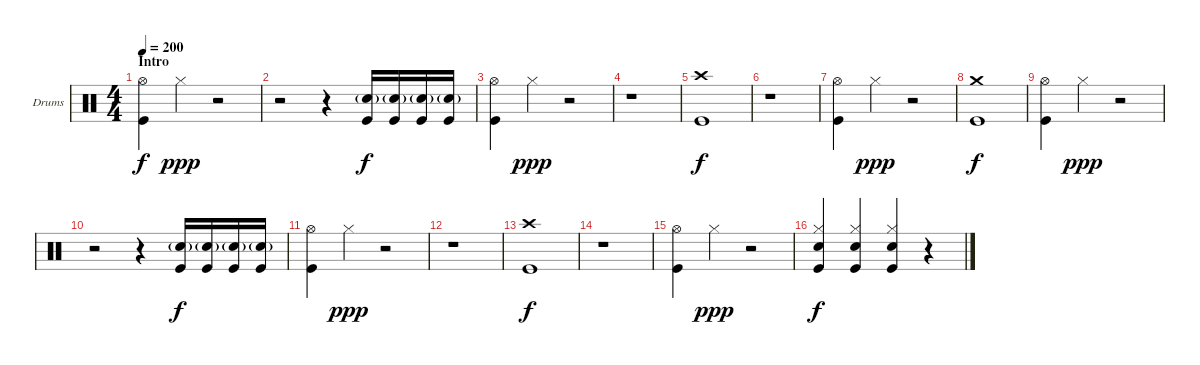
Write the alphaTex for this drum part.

\bracketExtendMode groupsimilarinstruments
\firstSystemTrackNameOrientation horizontal
\otherSystemsTrackNameOrientation horizontal
\track ("Drumkit" "Drums") {instrument percussion}
\staff {score}
\articulation defaults
\ts (4 4)
\section ("" "Intro")
\tempo 200
\clef neutral
\ks aminor
("Kick (hit)" "Hi-Hat (open)").4{dy f} "Hi-Hat (closed)".4{dy ppp} r.2 |
r.2 r.4 ("Kick (hit)" "Snare (hit) 2"{g}).16{dy f} ("Kick (hit)" "Snare (hit) 2"{g}).16 ("Kick (hit)" "Snare (hit) 2"{g}).16 ("Kick (hit)" "Snare (hit) 2"{g}).16 |
("Kick (hit)" "Hi-Hat (open)").4 "Hi-Hat (closed)".4{dy ppp} r.2 |
r.1 |
("Kick (hit)" "Crash high (hit)").1{dy f} |
r.1 |
("Kick (hit)" "Hi-Hat (open)").4 "Hi-Hat (closed)".4{dy ppp} r.2 |
("Kick (hit)" "Crash medium (hit)").1{dy f} |
("Kick (hit)" "Hi-Hat (open)").4 "Hi-Hat (closed)".4{dy ppp} r.2 |
r.2 r.4 ("Kick (hit)" "Snare (hit) 2"{g}).16{dy f} ("Kick (hit)" "Snare (hit) 2"{g}).16 ("Kick (hit)" "Snare (hit) 2"{g}).16 ("Kick (hit)" "Snare (hit) 2"{g}).16 |
("Kick (hit)" "Hi-Hat (open)").4 "Hi-Hat (closed)".4{dy ppp} r.2 |
r.1 |
("Kick (hit)" "Crash high (hit)").1{dy f} |
r.1 |
("Kick (hit)" "Hi-Hat (open)").4 "Hi-Hat (closed)".4{dy ppp} r.2 |
("Kick (hit)" "Snare (hit) 2" "Hi-Hat (closed)").4{dy f} ("Kick (hit)" "Snare (hit) 2" "Hi-Hat (closed)").4 ("Kick (hit)" "Snare (hit) 2" "Hi-Hat (closed)").4 r.4
